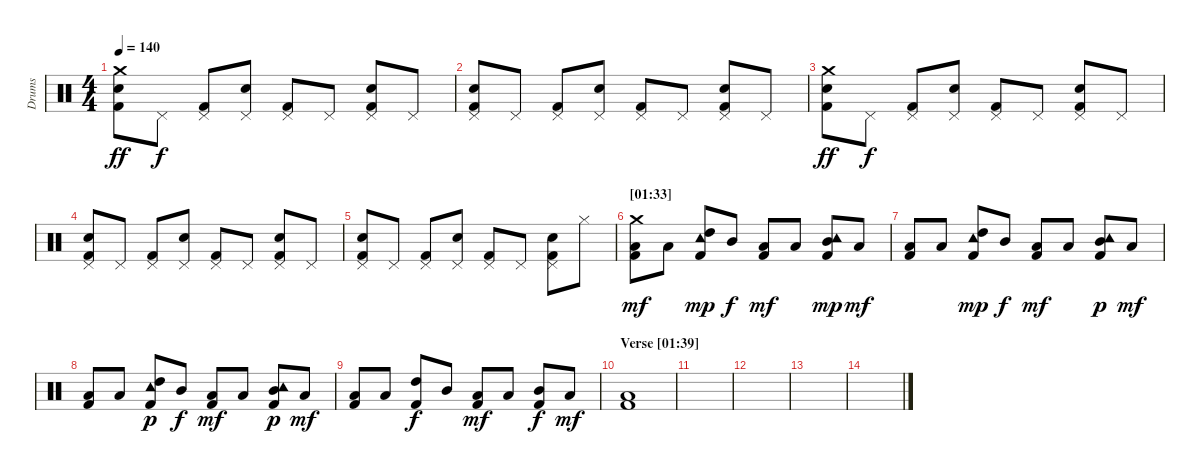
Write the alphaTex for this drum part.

\track ("Drums" "Drums") {instrument percussion}
\staff {score}
\articulation defaults
\ts (4 4)
\section ("" "")
\tempo 140
\clef neutral
\ks c
("Crash medium (hit)" "Electric Snare (hit)" "Kick (hit) 2").8{dy ff} "Pedal Hi-Hat (hit)".8{dy f} ("Pedal Hi-Hat (hit)" "Kick (hit) 2").8 ("Pedal Hi-Hat (hit)" "Electric Snare (hit)").8 ("Pedal Hi-Hat (hit)" "Kick (hit) 2").8 "Pedal Hi-Hat (hit)".8 ("Pedal Hi-Hat (hit)" "Electric Snare (hit)" "Kick (hit) 2").8 "Pedal Hi-Hat (hit)".8 |
("Pedal Hi-Hat (hit)" "Electric Snare (hit)" "Kick (hit) 2").8 "Pedal Hi-Hat (hit)".8 ("Pedal Hi-Hat (hit)" "Kick (hit) 2").8 ("Pedal Hi-Hat (hit)" "Electric Snare (hit)").8 ("Pedal Hi-Hat (hit)" "Kick (hit) 2").8 "Pedal Hi-Hat (hit)".8 ("Pedal Hi-Hat (hit)" "Electric Snare (hit)" "Kick (hit) 2").8 "Pedal Hi-Hat (hit)".8 |
("Crash medium (hit)" "Electric Snare (hit)" "Kick (hit) 2").8{dy ff} "Pedal Hi-Hat (hit)".8{dy f} ("Pedal Hi-Hat (hit)" "Kick (hit) 2").8 ("Pedal Hi-Hat (hit)" "Electric Snare (hit)").8 ("Pedal Hi-Hat (hit)" "Kick (hit) 2").8 "Pedal Hi-Hat (hit)".8 ("Pedal Hi-Hat (hit)" "Electric Snare (hit)" "Kick (hit) 2").8 "Pedal Hi-Hat (hit)".8 |
\section ("" "")
("Pedal Hi-Hat (hit)" "Electric Snare (hit)" "Kick (hit) 2").8 "Pedal Hi-Hat (hit)".8 ("Pedal Hi-Hat (hit)" "Kick (hit) 2").8 ("Pedal Hi-Hat (hit)" "Electric Snare (hit)").8 ("Pedal Hi-Hat (hit)" "Kick (hit) 2").8 "Pedal Hi-Hat (hit)".8 ("Pedal Hi-Hat (hit)" "Electric Snare (hit)" "Kick (hit) 2").8 "Pedal Hi-Hat (hit)".8 |
("Pedal Hi-Hat (hit)" "Electric Snare (hit)" "Kick (hit) 2").8 "Pedal Hi-Hat (hit)".8 ("Pedal Hi-Hat (hit)" "Kick (hit) 2").8 ("Pedal Hi-Hat (hit)" "Electric Snare (hit)").8 ("Pedal Hi-Hat (hit)" "Kick (hit) 2").8 "Pedal Hi-Hat (hit)".8 ("Pedal Hi-Hat (hit)" "Electric Snare (hit)" "Kick (hit) 2").8 "Hi-Hat (closed)".8 |
\section ("" "[01:33]")
("Crash medium (hit)" "Low Tom (hit)" "Kick (hit) 2").8{dy mf} "Low Tom (hit)".8 ("Tambourine (hit)" "High Tom (hit)" "Kick (hit) 2").8{dy mp} "Mid Tom (hit)".8{dy f} ("Low Tom (hit)" "Kick (hit) 2").8{dy mf} "Low Tom (hit)".8 ("Tambourine (hit)" "Mid Tom (hit)" "Kick (hit) 2").8{dy mp} "Low Tom (hit)".8{dy mf} |
("Low Tom (hit)" "Kick (hit) 2").8 "Low Tom (hit)".8 ("Tambourine (hit)" "High Tom (hit)" "Kick (hit) 2").8{dy mp} "Mid Tom (hit)".8{dy f} ("Low Tom (hit)" "Kick (hit) 2").8{dy mf} "Low Tom (hit)".8 ("Tambourine (hit)" "Mid Tom (hit)" "Kick (hit) 2").8{dy p} "Low Tom (hit)".8{dy mf} |
("Low Tom (hit)" "Kick (hit) 2").8 "Low Tom (hit)".8 ("Tambourine (hit)" "High Tom (hit)" "Kick (hit) 2").8{dy p} "Mid Tom (hit)".8{dy f} ("Low Tom (hit)" "Kick (hit) 2").8{dy mf} "Low Tom (hit)".8 ("Tambourine (hit)" "Mid Tom (hit)" "Kick (hit) 2").8{dy p} "Low Tom (hit)".8{dy mf} |
("Low Tom (hit)" "Kick (hit) 2").8 "Low Tom (hit)".8 ("High Tom (hit)" "Kick (hit) 2").8{dy f} "Mid Tom (hit)".8 ("Low Tom (hit)" "Kick (hit) 2").8{dy mf} "Low Tom (hit)".8 ("Mid Tom (hit)" "Kick (hit) 2").8{dy f} "Low Tom (hit)".8{dy mf} |
\section ("" "Verse [01:39]")
("Low Tom (hit)" "Kick (hit) 2").1 |
|
|
|
\section ("" "")
